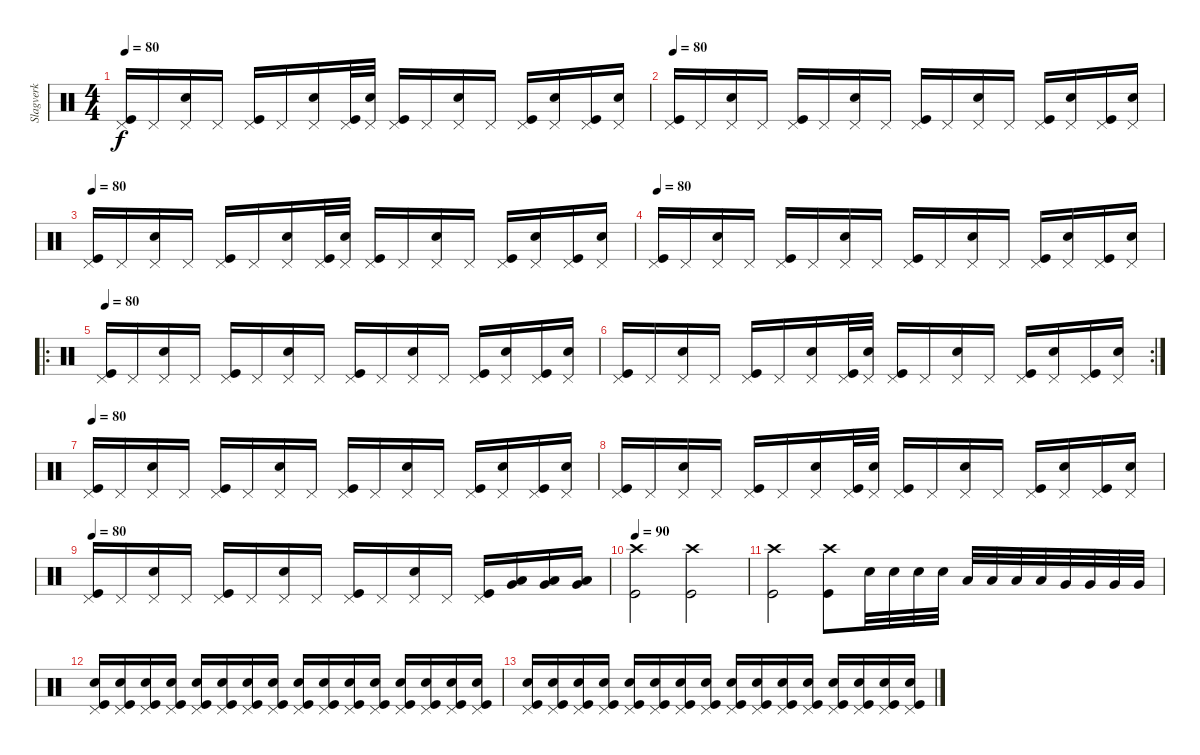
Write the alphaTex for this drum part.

\track ("Slagverk" "Slagverk") {instrument percussion}
\staff {score}
\articulation defaults
\ts (4 4)
\tempo 80
\clef neutral
\ks c
("Pedal Hi-Hat (hit)" "Kick (hit)").16{dy f} "Pedal Hi-Hat (hit)".16 ("Pedal Hi-Hat (hit)" "Electric Snare (hit)").16 "Pedal Hi-Hat (hit)".16 ("Pedal Hi-Hat (hit)" "Kick (hit)").16 "Pedal Hi-Hat (hit)".16 ("Pedal Hi-Hat (hit)" "Electric Snare (hit)").16 ("Pedal Hi-Hat (hit)" "Kick (hit)").32 ("Pedal Hi-Hat (hit)" "Electric Snare (hit)").32 ("Pedal Hi-Hat (hit)" "Kick (hit)").16 "Pedal Hi-Hat (hit)".16 ("Pedal Hi-Hat (hit)" "Electric Snare (hit)").16 "Pedal Hi-Hat (hit)".16 ("Pedal Hi-Hat (hit)" "Kick (hit)").16 ("Pedal Hi-Hat (hit)" "Electric Snare (hit)").16 ("Pedal Hi-Hat (hit)" "Kick (hit)").16 ("Pedal Hi-Hat (hit)" "Electric Snare (hit)").16 |
\tempo 80
("Pedal Hi-Hat (hit)" "Kick (hit)").16 "Pedal Hi-Hat (hit)".16 ("Pedal Hi-Hat (hit)" "Electric Snare (hit)").16 "Pedal Hi-Hat (hit)".16 ("Pedal Hi-Hat (hit)" "Kick (hit)").16 "Pedal Hi-Hat (hit)".16 ("Pedal Hi-Hat (hit)" "Electric Snare (hit)").16 "Pedal Hi-Hat (hit)".16 ("Pedal Hi-Hat (hit)" "Kick (hit)").16 "Pedal Hi-Hat (hit)".16 ("Pedal Hi-Hat (hit)" "Electric Snare (hit)").16 "Pedal Hi-Hat (hit)".16 ("Pedal Hi-Hat (hit)" "Kick (hit)").16 ("Pedal Hi-Hat (hit)" "Electric Snare (hit)").16 ("Pedal Hi-Hat (hit)" "Kick (hit)").16 ("Pedal Hi-Hat (hit)" "Electric Snare (hit)").16 |
\tempo 80
("Pedal Hi-Hat (hit)" "Kick (hit)").16 "Pedal Hi-Hat (hit)".16 ("Pedal Hi-Hat (hit)" "Electric Snare (hit)").16 "Pedal Hi-Hat (hit)".16 ("Pedal Hi-Hat (hit)" "Kick (hit)").16 "Pedal Hi-Hat (hit)".16 ("Pedal Hi-Hat (hit)" "Electric Snare (hit)").16 ("Pedal Hi-Hat (hit)" "Kick (hit)").32 ("Pedal Hi-Hat (hit)" "Electric Snare (hit)").32 ("Pedal Hi-Hat (hit)" "Kick (hit)").16 "Pedal Hi-Hat (hit)".16 ("Pedal Hi-Hat (hit)" "Electric Snare (hit)").16 "Pedal Hi-Hat (hit)".16 ("Pedal Hi-Hat (hit)" "Kick (hit)").16 ("Pedal Hi-Hat (hit)" "Electric Snare (hit)").16 ("Pedal Hi-Hat (hit)" "Kick (hit)").16 ("Pedal Hi-Hat (hit)" "Electric Snare (hit)").16 |
\tempo 80
("Pedal Hi-Hat (hit)" "Kick (hit)").16 "Pedal Hi-Hat (hit)".16 ("Pedal Hi-Hat (hit)" "Electric Snare (hit)").16 "Pedal Hi-Hat (hit)".16 ("Pedal Hi-Hat (hit)" "Kick (hit)").16 "Pedal Hi-Hat (hit)".16 ("Pedal Hi-Hat (hit)" "Electric Snare (hit)").16 "Pedal Hi-Hat (hit)".16 ("Pedal Hi-Hat (hit)" "Kick (hit)").16 "Pedal Hi-Hat (hit)".16 ("Pedal Hi-Hat (hit)" "Electric Snare (hit)").16 "Pedal Hi-Hat (hit)".16 ("Pedal Hi-Hat (hit)" "Kick (hit)").16 ("Pedal Hi-Hat (hit)" "Electric Snare (hit)").16 ("Pedal Hi-Hat (hit)" "Kick (hit)").16 ("Pedal Hi-Hat (hit)" "Electric Snare (hit)").16 |
\ro
\tempo 80
("Pedal Hi-Hat (hit)" "Kick (hit)").16 "Pedal Hi-Hat (hit)".16 ("Pedal Hi-Hat (hit)" "Electric Snare (hit)").16 "Pedal Hi-Hat (hit)".16 ("Pedal Hi-Hat (hit)" "Kick (hit)").16 "Pedal Hi-Hat (hit)".16 ("Pedal Hi-Hat (hit)" "Electric Snare (hit)").16 "Pedal Hi-Hat (hit)".16 ("Pedal Hi-Hat (hit)" "Kick (hit)").16 "Pedal Hi-Hat (hit)".16 ("Pedal Hi-Hat (hit)" "Electric Snare (hit)").16 "Pedal Hi-Hat (hit)".16 ("Pedal Hi-Hat (hit)" "Kick (hit)").16 ("Pedal Hi-Hat (hit)" "Electric Snare (hit)").16 ("Pedal Hi-Hat (hit)" "Kick (hit)").16 ("Pedal Hi-Hat (hit)" "Electric Snare (hit)").16 |
\rc 2
("Pedal Hi-Hat (hit)" "Kick (hit)").16 "Pedal Hi-Hat (hit)".16 ("Pedal Hi-Hat (hit)" "Electric Snare (hit)").16 "Pedal Hi-Hat (hit)".16 ("Pedal Hi-Hat (hit)" "Kick (hit)").16 "Pedal Hi-Hat (hit)".16 ("Pedal Hi-Hat (hit)" "Electric Snare (hit)").16 ("Pedal Hi-Hat (hit)" "Kick (hit)").32 ("Pedal Hi-Hat (hit)" "Electric Snare (hit)").32 ("Pedal Hi-Hat (hit)" "Kick (hit)").16 "Pedal Hi-Hat (hit)".16 ("Pedal Hi-Hat (hit)" "Electric Snare (hit)").16 "Pedal Hi-Hat (hit)".16 ("Pedal Hi-Hat (hit)" "Kick (hit)").16 ("Pedal Hi-Hat (hit)" "Electric Snare (hit)").16 ("Pedal Hi-Hat (hit)" "Kick (hit)").16 ("Pedal Hi-Hat (hit)" "Electric Snare (hit)").16 |
\tempo 80
("Pedal Hi-Hat (hit)" "Kick (hit)").16 "Pedal Hi-Hat (hit)".16 ("Pedal Hi-Hat (hit)" "Electric Snare (hit)").16 "Pedal Hi-Hat (hit)".16 ("Pedal Hi-Hat (hit)" "Kick (hit)").16 "Pedal Hi-Hat (hit)".16 ("Pedal Hi-Hat (hit)" "Electric Snare (hit)").16 "Pedal Hi-Hat (hit)".16 ("Pedal Hi-Hat (hit)" "Kick (hit)").16 "Pedal Hi-Hat (hit)".16 ("Pedal Hi-Hat (hit)" "Electric Snare (hit)").16 "Pedal Hi-Hat (hit)".16 ("Pedal Hi-Hat (hit)" "Kick (hit)").16 ("Pedal Hi-Hat (hit)" "Electric Snare (hit)").16 ("Pedal Hi-Hat (hit)" "Kick (hit)").16 ("Pedal Hi-Hat (hit)" "Electric Snare (hit)").16 |
("Pedal Hi-Hat (hit)" "Kick (hit)").16 "Pedal Hi-Hat (hit)".16 ("Pedal Hi-Hat (hit)" "Electric Snare (hit)").16 "Pedal Hi-Hat (hit)".16 ("Pedal Hi-Hat (hit)" "Kick (hit)").16 "Pedal Hi-Hat (hit)".16 ("Pedal Hi-Hat (hit)" "Electric Snare (hit)").16 ("Pedal Hi-Hat (hit)" "Kick (hit)").32 ("Pedal Hi-Hat (hit)" "Electric Snare (hit)").32 ("Pedal Hi-Hat (hit)" "Kick (hit)").16 "Pedal Hi-Hat (hit)".16 ("Pedal Hi-Hat (hit)" "Electric Snare (hit)").16 "Pedal Hi-Hat (hit)".16 ("Pedal Hi-Hat (hit)" "Kick (hit)").16 ("Pedal Hi-Hat (hit)" "Electric Snare (hit)").16 ("Pedal Hi-Hat (hit)" "Kick (hit)").16 ("Pedal Hi-Hat (hit)" "Electric Snare (hit)").16 |
\tempo 80
("Pedal Hi-Hat (hit)" "Kick (hit)").16 "Pedal Hi-Hat (hit)".16 ("Pedal Hi-Hat (hit)" "Electric Snare (hit)").16 "Pedal Hi-Hat (hit)".16 ("Pedal Hi-Hat (hit)" "Kick (hit)").16 "Pedal Hi-Hat (hit)".16 ("Pedal Hi-Hat (hit)" "Electric Snare (hit)").16 "Pedal Hi-Hat (hit)".16 ("Pedal Hi-Hat (hit)" "Kick (hit)").16 "Pedal Hi-Hat (hit)".16 ("Pedal Hi-Hat (hit)" "Electric Snare (hit)").16 "Pedal Hi-Hat (hit)".16 ("Pedal Hi-Hat (hit)" "Kick (hit)").16 ("Very Low Tom (hit)" "Low Floor Tom (hit)").16 ("Very Low Tom (hit)" "Low Floor Tom (hit)").16 ("Very Low Tom (hit)" "Low Floor Tom (hit)").16 |
\tempo 90
("Crash high (hit)" "Kick (hit)").2 ("Crash high (hit)" "Kick (hit)").2 |
("Crash high (hit)" "Kick (hit)").2 ("Crash high (hit)" "Kick (hit)").8 "Electric Snare (hit)".32 "Electric Snare (hit)".32 "Electric Snare (hit)".32 "Electric Snare (hit)".32 "Low Tom (hit)".32 "Low Tom (hit)".32 "Low Tom (hit)".32 "Low Tom (hit)".32 "Very Low Tom (hit)".32 "Very Low Tom (hit)".32 "Very Low Tom (hit)".32 "Very Low Tom (hit)".32 |
("Pedal Hi-Hat (hit)" "Electric Snare (hit)" "Kick (hit)").16 ("Pedal Hi-Hat (hit)" "Electric Snare (hit)" "Kick (hit)").16 ("Pedal Hi-Hat (hit)" "Electric Snare (hit)" "Kick (hit)").16 ("Pedal Hi-Hat (hit)" "Electric Snare (hit)" "Kick (hit)").16 ("Pedal Hi-Hat (hit)" "Electric Snare (hit)" "Kick (hit)").16 ("Pedal Hi-Hat (hit)" "Electric Snare (hit)" "Kick (hit)").16 ("Pedal Hi-Hat (hit)" "Electric Snare (hit)" "Kick (hit)").16 ("Pedal Hi-Hat (hit)" "Electric Snare (hit)" "Kick (hit)").16 ("Pedal Hi-Hat (hit)" "Electric Snare (hit)" "Kick (hit)").16 ("Pedal Hi-Hat (hit)" "Electric Snare (hit)" "Kick (hit)").16 ("Pedal Hi-Hat (hit)" "Electric Snare (hit)" "Kick (hit)").16 ("Pedal Hi-Hat (hit)" "Electric Snare (hit)" "Kick (hit)").16 ("Pedal Hi-Hat (hit)" "Electric Snare (hit)" "Kick (hit)").16 ("Pedal Hi-Hat (hit)" "Electric Snare (hit)" "Kick (hit)").16 ("Pedal Hi-Hat (hit)" "Electric Snare (hit)" "Kick (hit)").16 ("Pedal Hi-Hat (hit)" "Electric Snare (hit)" "Kick (hit)").16 |
("Pedal Hi-Hat (hit)" "Electric Snare (hit)" "Kick (hit)").16 ("Pedal Hi-Hat (hit)" "Electric Snare (hit)" "Kick (hit)").16 ("Pedal Hi-Hat (hit)" "Electric Snare (hit)" "Kick (hit)").16 ("Pedal Hi-Hat (hit)" "Electric Snare (hit)" "Kick (hit)").16 ("Pedal Hi-Hat (hit)" "Electric Snare (hit)" "Kick (hit)").16 ("Pedal Hi-Hat (hit)" "Electric Snare (hit)" "Kick (hit)").16 ("Pedal Hi-Hat (hit)" "Electric Snare (hit)" "Kick (hit)").16 ("Pedal Hi-Hat (hit)" "Electric Snare (hit)" "Kick (hit)").16 ("Pedal Hi-Hat (hit)" "Electric Snare (hit)" "Kick (hit)").16 ("Pedal Hi-Hat (hit)" "Electric Snare (hit)" "Kick (hit)").16 ("Pedal Hi-Hat (hit)" "Electric Snare (hit)" "Kick (hit)").16 ("Pedal Hi-Hat (hit)" "Electric Snare (hit)" "Kick (hit)").16 ("Pedal Hi-Hat (hit)" "Electric Snare (hit)" "Kick (hit)").16 ("Pedal Hi-Hat (hit)" "Electric Snare (hit)" "Kick (hit)").16 ("Pedal Hi-Hat (hit)" "Electric Snare (hit)" "Kick (hit)").16 ("Pedal Hi-Hat (hit)" "Electric Snare (hit)" "Kick (hit)").16
